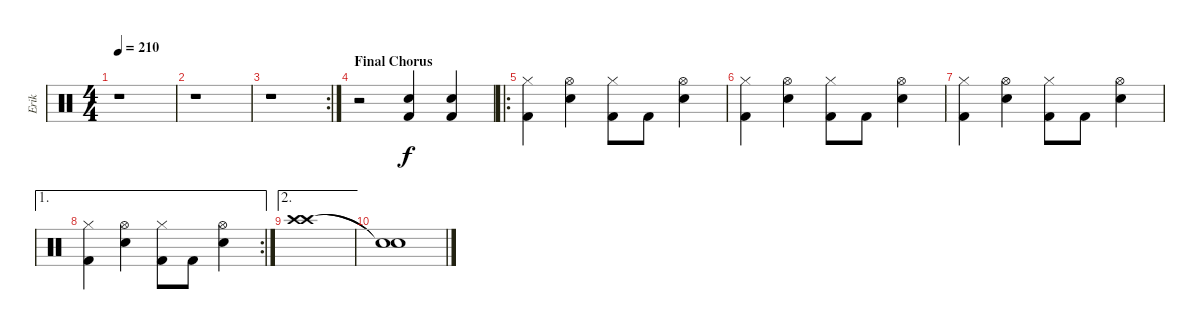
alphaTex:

\track ("Erik" "Erik") {instrument percussion}
\staff {score}
\articulation defaults
\ts (4 4)
\tempo 210
\clef neutral
\ks c
r.1{dy f} |
r.1 |
\rc 2
r.1 |
\section ("" "Final Chorus")
r.2 ("Kick (hit) 2" "Snare (hit) 2").4 ("Kick (hit) 2" "Snare (hit) 2").4 |
\ro
("Hi-Hat (closed)" "Kick (hit) 2").4 ("Hi-Hat (open)" "Snare (hit) 2").4 ("Hi-Hat (closed)" "Kick (hit) 2").8 "Kick (hit) 2".8 ("Hi-Hat (open)" "Snare (hit) 2").4 |
("Hi-Hat (closed)" "Kick (hit) 2").4 ("Hi-Hat (open)" "Snare (hit) 2").4 ("Hi-Hat (closed)" "Kick (hit) 2").8 "Kick (hit) 2".8 ("Hi-Hat (open)" "Snare (hit) 2").4 |
("Hi-Hat (closed)" "Kick (hit) 2").4 ("Hi-Hat (open)" "Snare (hit) 2").4 ("Hi-Hat (closed)" "Kick (hit) 2").8 "Kick (hit) 2".8 ("Hi-Hat (open)" "Snare (hit) 2").4 |
\ae 1
\rc 2
("Hi-Hat (closed)" "Kick (hit) 2").4 ("Hi-Hat (open)" "Snare (hit) 2").4 ("Hi-Hat (closed)" "Kick (hit) 2").8 "Kick (hit) 2".8 ("Hi-Hat (open)" "Snare (hit) 2").4 |
\ae 2
("Crash high (hit)" "Crash high (hit)").1 |
("Snare (hit)"{t} "Snare (hit)"{t}).1
